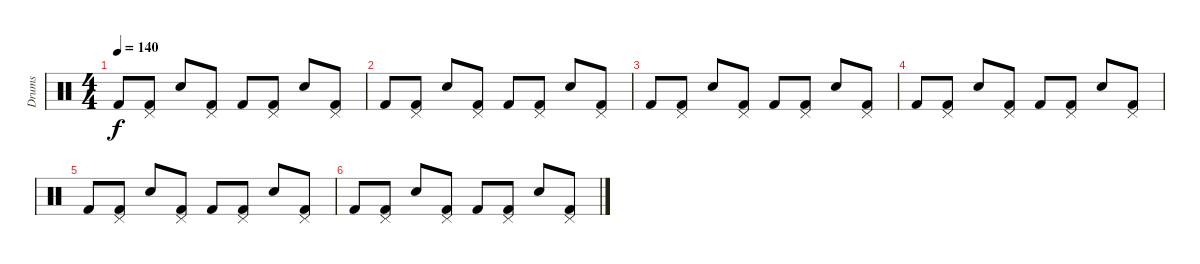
\track ("Drums" "Drums") {instrument percussion}
\staff {score}
\articulation defaults
\ts (4 4)
\tempo 140
\clef neutral
\ks c "Kick (hit) 2".8{dy f}
("Pedal Hi-Hat (hit)" "Kick (hit) 2").8 "Electric Snare (hit)".8 ("Pedal Hi-Hat (hit)" "Kick (hit) 2").8 "Kick (hit) 2".8 ("Pedal Hi-Hat (hit)" "Kick (hit) 2").8 "Electric Snare (hit)".8 ("Pedal Hi-Hat (hit)" "Kick (hit) 2").8 |
"Kick (hit) 2".8 ("Pedal Hi-Hat (hit)" "Kick (hit) 2").8 "Electric Snare (hit)".8 ("Pedal Hi-Hat (hit)" "Kick (hit) 2").8 "Kick (hit) 2".8 ("Pedal Hi-Hat (hit)" "Kick (hit) 2").8 "Electric Snare (hit)".8 ("Pedal Hi-Hat (hit)" "Kick (hit) 2").8 |
"Kick (hit) 2".8 ("Pedal Hi-Hat (hit)" "Kick (hit) 2").8 "Electric Snare (hit)".8 ("Pedal Hi-Hat (hit)" "Kick (hit) 2").8 "Kick (hit) 2".8 ("Pedal Hi-Hat (hit)" "Kick (hit) 2").8 "Electric Snare (hit)".8 ("Pedal Hi-Hat (hit)" "Kick (hit) 2").8 |
"Kick (hit) 2".8 ("Pedal Hi-Hat (hit)" "Kick (hit) 2").8 "Electric Snare (hit)".8 ("Pedal Hi-Hat (hit)" "Kick (hit) 2").8 "Kick (hit) 2".8 ("Pedal Hi-Hat (hit)" "Kick (hit) 2").8 "Electric Snare (hit)".8 ("Pedal Hi-Hat (hit)" "Kick (hit) 2").8 |
"Kick (hit) 2".8 ("Pedal Hi-Hat (hit)" "Kick (hit) 2").8 "Electric Snare (hit)".8 ("Pedal Hi-Hat (hit)" "Kick (hit) 2").8 "Kick (hit) 2".8 ("Pedal Hi-Hat (hit)" "Kick (hit) 2").8 "Electric Snare (hit)".8 ("Pedal Hi-Hat (hit)" "Kick (hit) 2").8 |
"Kick (hit) 2".8 ("Pedal Hi-Hat (hit)" "Kick (hit) 2").8 "Electric Snare (hit)".8 ("Pedal Hi-Hat (hit)" "Kick (hit) 2").8 "Kick (hit) 2".8 ("Pedal Hi-Hat (hit)" "Kick (hit) 2").8 "Electric Snare (hit)".8 ("Pedal Hi-Hat (hit)" "Kick (hit) 2").8
